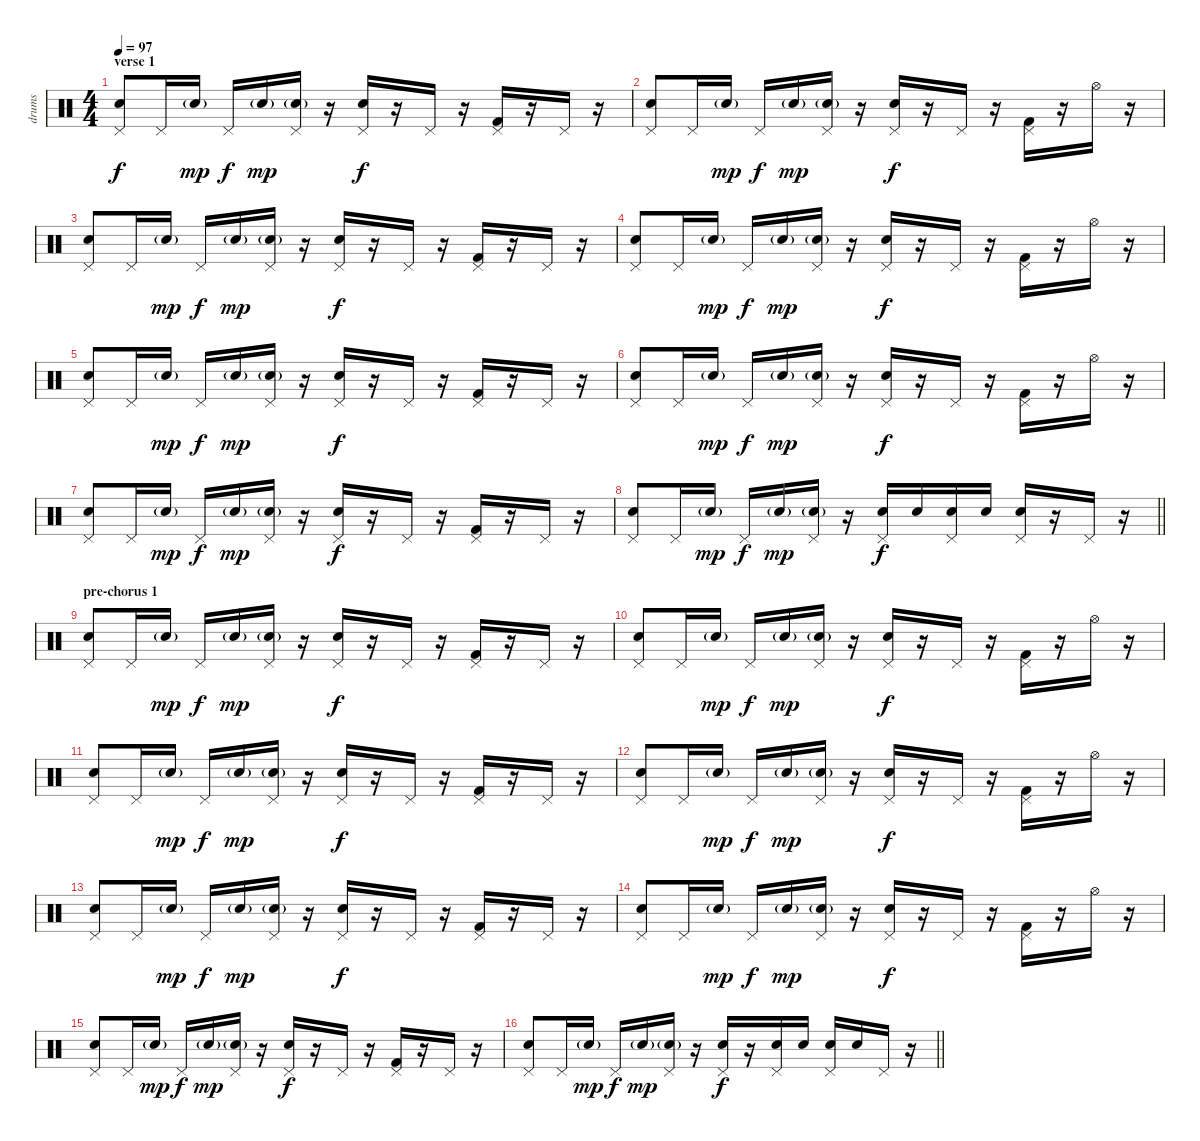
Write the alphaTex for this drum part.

\track ("drums" "drums") {instrument percussion}
\staff {score}
\articulation defaults
\ts (4 4)
\section ("" "verse 1")
\tempo 97
\clef neutral
\ks c
("Electric Snare (hit)" "Pedal Hi-Hat (hit)").8{dy f} "Pedal Hi-Hat (hit)".16 "Electric Snare (hit)"{g}.16{dy mp} "Pedal Hi-Hat (hit)".16{dy f} "Electric Snare (hit)"{g}.16{dy mp} ("Electric Snare (hit)"{g} "Pedal Hi-Hat (hit)").16 r.16 ("Electric Snare (hit)" "Pedal Hi-Hat (hit)").16{dy f} r.16 "Pedal Hi-Hat (hit)".16 r.16 ("Kick (hit) 2" "Pedal Hi-Hat (hit)").16 r.16 "Pedal Hi-Hat (hit)".16 r.16 |
("Electric Snare (hit)" "Pedal Hi-Hat (hit)").8 "Pedal Hi-Hat (hit)".16 "Electric Snare (hit)"{g}.16{dy mp} "Pedal Hi-Hat (hit)".16{dy f} "Electric Snare (hit)"{g}.16{dy mp} ("Electric Snare (hit)"{g} "Pedal Hi-Hat (hit)").16 r.16 ("Electric Snare (hit)" "Pedal Hi-Hat (hit)").16{dy f} r.16 "Pedal Hi-Hat (hit)".16 r.16 ("Kick (hit) 2" "Pedal Hi-Hat (hit)").16 r.16 "Hi-Hat (open)".16 r.16 |
("Electric Snare (hit)" "Pedal Hi-Hat (hit)").8 "Pedal Hi-Hat (hit)".16 "Electric Snare (hit)"{g}.16{dy mp} "Pedal Hi-Hat (hit)".16{dy f} "Electric Snare (hit)"{g}.16{dy mp} ("Electric Snare (hit)"{g} "Pedal Hi-Hat (hit)").16 r.16 ("Electric Snare (hit)" "Pedal Hi-Hat (hit)").16{dy f} r.16 "Pedal Hi-Hat (hit)".16 r.16 ("Kick (hit) 2" "Pedal Hi-Hat (hit)").16 r.16 "Pedal Hi-Hat (hit)".16 r.16 |
("Electric Snare (hit)" "Pedal Hi-Hat (hit)").8 "Pedal Hi-Hat (hit)".16 "Electric Snare (hit)"{g}.16{dy mp} "Pedal Hi-Hat (hit)".16{dy f} "Electric Snare (hit)"{g}.16{dy mp} ("Electric Snare (hit)"{g} "Pedal Hi-Hat (hit)").16 r.16 ("Electric Snare (hit)" "Pedal Hi-Hat (hit)").16{dy f} r.16 "Pedal Hi-Hat (hit)".16 r.16 ("Kick (hit) 2" "Pedal Hi-Hat (hit)").16 r.16 "Hi-Hat (open)".16 r.16 |
("Electric Snare (hit)" "Pedal Hi-Hat (hit)").8 "Pedal Hi-Hat (hit)".16 "Electric Snare (hit)"{g}.16{dy mp} "Pedal Hi-Hat (hit)".16{dy f} "Electric Snare (hit)"{g}.16{dy mp} ("Electric Snare (hit)"{g} "Pedal Hi-Hat (hit)").16 r.16 ("Electric Snare (hit)" "Pedal Hi-Hat (hit)").16{dy f} r.16 "Pedal Hi-Hat (hit)".16 r.16 ("Kick (hit) 2" "Pedal Hi-Hat (hit)").16 r.16 "Pedal Hi-Hat (hit)".16 r.16 |
("Electric Snare (hit)" "Pedal Hi-Hat (hit)").8 "Pedal Hi-Hat (hit)".16 "Electric Snare (hit)"{g}.16{dy mp} "Pedal Hi-Hat (hit)".16{dy f} "Electric Snare (hit)"{g}.16{dy mp} ("Electric Snare (hit)"{g} "Pedal Hi-Hat (hit)").16 r.16 ("Electric Snare (hit)" "Pedal Hi-Hat (hit)").16{dy f} r.16 "Pedal Hi-Hat (hit)".16 r.16 ("Kick (hit) 2" "Pedal Hi-Hat (hit)").16 r.16 "Hi-Hat (open)".16 r.16 |
("Electric Snare (hit)" "Pedal Hi-Hat (hit)").8 "Pedal Hi-Hat (hit)".16 "Electric Snare (hit)"{g}.16{dy mp} "Pedal Hi-Hat (hit)".16{dy f} "Electric Snare (hit)"{g}.16{dy mp} ("Electric Snare (hit)"{g} "Pedal Hi-Hat (hit)").16 r.16 ("Electric Snare (hit)" "Pedal Hi-Hat (hit)").16{dy f} r.16 "Pedal Hi-Hat (hit)".16 r.16 ("Kick (hit) 2" "Pedal Hi-Hat (hit)").16 r.16 "Pedal Hi-Hat (hit)".16 r.16 |
\barLineRight lightlight
("Electric Snare (hit)" "Pedal Hi-Hat (hit)").8 "Pedal Hi-Hat (hit)".16 "Electric Snare (hit)"{g}.16{dy mp} "Pedal Hi-Hat (hit)".16{dy f} "Electric Snare (hit)"{g}.16{dy mp} ("Electric Snare (hit)"{g} "Pedal Hi-Hat (hit)").16 r.16 ("Electric Snare (hit)" "Pedal Hi-Hat (hit)").16{dy f} "Electric Snare (hit)".16 ("Electric Snare (hit)" "Pedal Hi-Hat (hit)").16 "Electric Snare (hit)".16 ("Electric Snare (hit)" "Pedal Hi-Hat (hit)").16 r.16 "Pedal Hi-Hat (hit)".16 r.16 |
\section ("" "pre-chorus 1")
("Electric Snare (hit)" "Pedal Hi-Hat (hit)").8 "Pedal Hi-Hat (hit)".16 "Electric Snare (hit)"{g}.16{dy mp} "Pedal Hi-Hat (hit)".16{dy f} "Electric Snare (hit)"{g}.16{dy mp} ("Electric Snare (hit)"{g} "Pedal Hi-Hat (hit)").16 r.16 ("Electric Snare (hit)" "Pedal Hi-Hat (hit)").16{dy f} r.16 "Pedal Hi-Hat (hit)".16 r.16 ("Kick (hit) 2" "Pedal Hi-Hat (hit)").16 r.16 "Pedal Hi-Hat (hit)".16 r.16 |
("Electric Snare (hit)" "Pedal Hi-Hat (hit)").8 "Pedal Hi-Hat (hit)".16 "Electric Snare (hit)"{g}.16{dy mp} "Pedal Hi-Hat (hit)".16{dy f} "Electric Snare (hit)"{g}.16{dy mp} ("Electric Snare (hit)"{g} "Pedal Hi-Hat (hit)").16 r.16 ("Electric Snare (hit)" "Pedal Hi-Hat (hit)").16{dy f} r.16 "Pedal Hi-Hat (hit)".16 r.16 ("Kick (hit) 2" "Pedal Hi-Hat (hit)").16 r.16 "Hi-Hat (open)".16 r.16 |
("Electric Snare (hit)" "Pedal Hi-Hat (hit)").8 "Pedal Hi-Hat (hit)".16 "Electric Snare (hit)"{g}.16{dy mp} "Pedal Hi-Hat (hit)".16{dy f} "Electric Snare (hit)"{g}.16{dy mp} ("Electric Snare (hit)"{g} "Pedal Hi-Hat (hit)").16 r.16 ("Electric Snare (hit)" "Pedal Hi-Hat (hit)").16{dy f} r.16 "Pedal Hi-Hat (hit)".16 r.16 ("Kick (hit) 2" "Pedal Hi-Hat (hit)").16 r.16 "Pedal Hi-Hat (hit)".16 r.16 |
("Electric Snare (hit)" "Pedal Hi-Hat (hit)").8 "Pedal Hi-Hat (hit)".16 "Electric Snare (hit)"{g}.16{dy mp} "Pedal Hi-Hat (hit)".16{dy f} "Electric Snare (hit)"{g}.16{dy mp} ("Electric Snare (hit)"{g} "Pedal Hi-Hat (hit)").16 r.16 ("Electric Snare (hit)" "Pedal Hi-Hat (hit)").16{dy f} r.16 "Pedal Hi-Hat (hit)".16 r.16 ("Kick (hit) 2" "Pedal Hi-Hat (hit)").16 r.16 "Hi-Hat (open)".16 r.16 |
("Electric Snare (hit)" "Pedal Hi-Hat (hit)").8 "Pedal Hi-Hat (hit)".16 "Electric Snare (hit)"{g}.16{dy mp} "Pedal Hi-Hat (hit)".16{dy f} "Electric Snare (hit)"{g}.16{dy mp} ("Electric Snare (hit)"{g} "Pedal Hi-Hat (hit)").16 r.16 ("Electric Snare (hit)" "Pedal Hi-Hat (hit)").16{dy f} r.16 "Pedal Hi-Hat (hit)".16 r.16 ("Kick (hit) 2" "Pedal Hi-Hat (hit)").16 r.16 "Pedal Hi-Hat (hit)".16 r.16 |
("Electric Snare (hit)" "Pedal Hi-Hat (hit)").8 "Pedal Hi-Hat (hit)".16 "Electric Snare (hit)"{g}.16{dy mp} "Pedal Hi-Hat (hit)".16{dy f} "Electric Snare (hit)"{g}.16{dy mp} ("Electric Snare (hit)"{g} "Pedal Hi-Hat (hit)").16 r.16 ("Electric Snare (hit)" "Pedal Hi-Hat (hit)").16{dy f} r.16 "Pedal Hi-Hat (hit)".16 r.16 ("Kick (hit) 2" "Pedal Hi-Hat (hit)").16 r.16 "Hi-Hat (open)".16 r.16 |
("Electric Snare (hit)" "Pedal Hi-Hat (hit)").8 "Pedal Hi-Hat (hit)".16 "Electric Snare (hit)"{g}.16{dy mp} "Pedal Hi-Hat (hit)".16{dy f} "Electric Snare (hit)"{g}.16{dy mp} ("Electric Snare (hit)"{g} "Pedal Hi-Hat (hit)").16 r.16 ("Electric Snare (hit)" "Pedal Hi-Hat (hit)").16{dy f} r.16 "Pedal Hi-Hat (hit)".16 r.16 ("Kick (hit) 2" "Pedal Hi-Hat (hit)").16 r.16 "Pedal Hi-Hat (hit)".16 r.16 |
\barLineRight lightlight
("Electric Snare (hit)" "Pedal Hi-Hat (hit)").8 "Pedal Hi-Hat (hit)".16 "Electric Snare (hit)"{g}.16{dy mp} "Pedal Hi-Hat (hit)".16{dy f} "Electric Snare (hit)"{g}.16{dy mp} ("Electric Snare (hit)"{g} "Pedal Hi-Hat (hit)").16 r.16 ("Electric Snare (hit)" "Pedal Hi-Hat (hit)").16{dy f} r.16 ("Electric Snare (hit)" "Pedal Hi-Hat (hit)").16 "Electric Snare (hit)".16 ("Electric Snare (hit)" "Pedal Hi-Hat (hit)").16 "Electric Snare (hit)".16 "Pedal Hi-Hat (hit)".16 r.16
